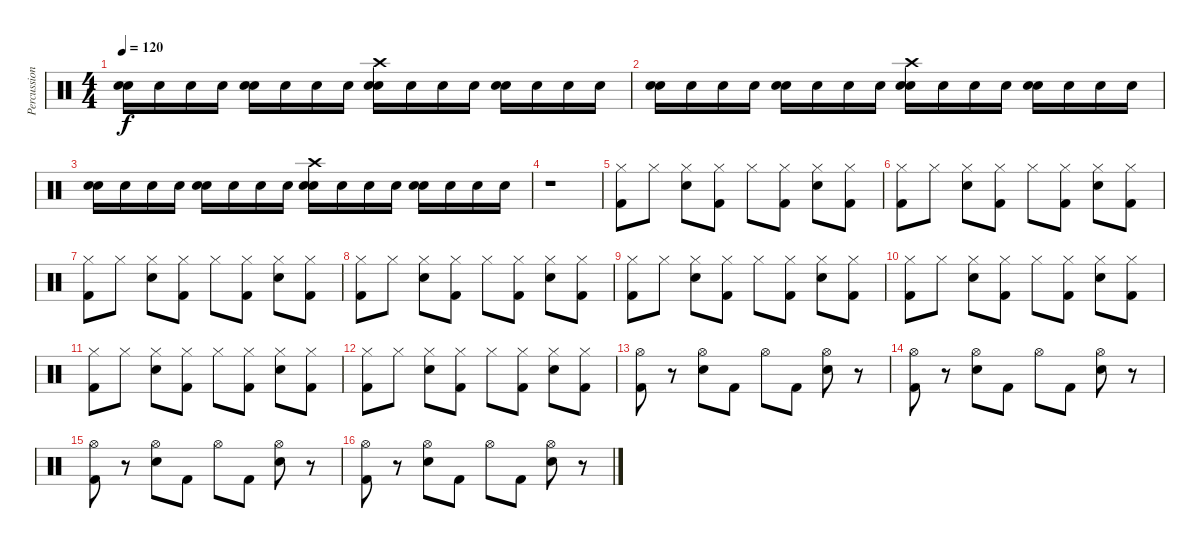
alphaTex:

\track ("Percussion" "Percussion") {instrument percussion}
\staff {score}
\articulation defaults
\ts (4 4)
\tempo 120
\clef neutral
\ks c
("Snare (hit) 2" "Snare (hit) 2").16{dy f} "Snare (hit) 2".16 "Snare (hit) 2".16 "Snare (hit) 2".16 ("Snare (hit) 2" "Snare (hit) 2").16 "Snare (hit) 2".16 "Snare (hit) 2".16 "Snare (hit) 2".16 ("Snare (hit) 2" "Snare (hit) 2" "Crash high (hit)").16 "Snare (hit) 2".16 "Snare (hit) 2".16 "Snare (hit) 2".16 ("Snare (hit) 2" "Snare (hit) 2").16 "Snare (hit) 2".16 "Snare (hit) 2".16 "Snare (hit) 2".16 |
("Snare (hit) 2" "Snare (hit) 2").16 "Snare (hit) 2".16 "Snare (hit) 2".16 "Snare (hit) 2".16 ("Snare (hit) 2" "Snare (hit) 2").16 "Snare (hit) 2".16 "Snare (hit) 2".16 "Snare (hit) 2".16 ("Snare (hit) 2" "Snare (hit) 2" "Crash high (hit)").16 "Snare (hit) 2".16 "Snare (hit) 2".16 "Snare (hit) 2".16 ("Snare (hit) 2" "Snare (hit) 2").16 "Snare (hit) 2".16 "Snare (hit) 2".16 "Snare (hit) 2".16 |
("Snare (hit) 2" "Snare (hit) 2").16 "Snare (hit) 2".16 "Snare (hit) 2".16 "Snare (hit) 2".16 ("Snare (hit) 2" "Snare (hit) 2").16 "Snare (hit) 2".16 "Snare (hit) 2".16 "Snare (hit) 2".16 ("Snare (hit) 2" "Snare (hit) 2" "Crash high (hit)").16 "Snare (hit) 2".16 "Snare (hit) 2".16 "Snare (hit) 2".16 ("Snare (hit) 2" "Snare (hit) 2").16 "Snare (hit) 2".16 "Snare (hit) 2".16 "Snare (hit) 2".16 |
r.1 |
("Hi-Hat (closed)" "Kick (hit) 2").8 "Hi-Hat (closed)".8 ("Hi-Hat (closed)" "Snare (hit) 2").8 ("Hi-Hat (closed)" "Kick (hit) 2").8 "Hi-Hat (closed)".8 ("Hi-Hat (closed)" "Kick (hit) 2").8 ("Hi-Hat (closed)" "Snare (hit) 2").8 ("Hi-Hat (closed)" "Kick (hit) 2").8 |
("Hi-Hat (closed)" "Kick (hit) 2").8 "Hi-Hat (closed)".8 ("Hi-Hat (closed)" "Snare (hit) 2").8 ("Hi-Hat (closed)" "Kick (hit) 2").8 "Hi-Hat (closed)".8 ("Hi-Hat (closed)" "Kick (hit) 2").8 ("Hi-Hat (closed)" "Snare (hit) 2").8 ("Hi-Hat (closed)" "Kick (hit) 2").8 |
("Hi-Hat (closed)" "Kick (hit) 2").8 "Hi-Hat (closed)".8 ("Hi-Hat (closed)" "Snare (hit) 2").8 ("Hi-Hat (closed)" "Kick (hit) 2").8 "Hi-Hat (closed)".8 ("Hi-Hat (closed)" "Kick (hit) 2").8 ("Hi-Hat (closed)" "Snare (hit) 2").8 ("Hi-Hat (closed)" "Kick (hit) 2").8 |
("Hi-Hat (closed)" "Kick (hit) 2").8 "Hi-Hat (closed)".8 ("Hi-Hat (closed)" "Snare (hit) 2").8 ("Hi-Hat (closed)" "Kick (hit) 2").8 "Hi-Hat (closed)".8 ("Hi-Hat (closed)" "Kick (hit) 2").8 ("Hi-Hat (closed)" "Snare (hit) 2").8 ("Hi-Hat (closed)" "Kick (hit) 2").8 |
("Hi-Hat (closed)" "Kick (hit) 2").8 "Hi-Hat (closed)".8 ("Hi-Hat (closed)" "Snare (hit) 2").8 ("Hi-Hat (closed)" "Kick (hit) 2").8 "Hi-Hat (closed)".8 ("Hi-Hat (closed)" "Kick (hit) 2").8 ("Hi-Hat (closed)" "Snare (hit) 2").8 ("Hi-Hat (closed)" "Kick (hit) 2").8 |
("Hi-Hat (closed)" "Kick (hit) 2").8 "Hi-Hat (closed)".8 ("Hi-Hat (closed)" "Snare (hit) 2").8 ("Hi-Hat (closed)" "Kick (hit) 2").8 "Hi-Hat (closed)".8 ("Hi-Hat (closed)" "Kick (hit) 2").8 ("Hi-Hat (closed)" "Snare (hit) 2").8 ("Hi-Hat (closed)" "Kick (hit) 2").8 |
("Hi-Hat (closed)" "Kick (hit) 2").8 "Hi-Hat (closed)".8 ("Hi-Hat (closed)" "Snare (hit) 2").8 ("Hi-Hat (closed)" "Kick (hit) 2").8 "Hi-Hat (closed)".8 ("Hi-Hat (closed)" "Kick (hit) 2").8 ("Hi-Hat (closed)" "Snare (hit) 2").8 ("Hi-Hat (closed)" "Kick (hit) 2").8 |
("Hi-Hat (closed)" "Kick (hit) 2").8 "Hi-Hat (closed)".8 ("Hi-Hat (closed)" "Snare (hit) 2").8 ("Hi-Hat (closed)" "Kick (hit) 2").8 "Hi-Hat (closed)".8 ("Hi-Hat (closed)" "Kick (hit) 2").8 ("Hi-Hat (closed)" "Snare (hit) 2").8 ("Hi-Hat (closed)" "Kick (hit) 2").8 |
("Hi-Hat (open)" "Kick (hit) 2").8 r.8 ("Hi-Hat (open)" "Snare (hit) 2").8 "Kick (hit) 2".8 "Hi-Hat (open)".8 "Kick (hit) 2".8 ("Hi-Hat (open)" "Snare (hit) 2").8 r.8 |
("Hi-Hat (open)" "Kick (hit) 2").8 r.8 ("Hi-Hat (open)" "Snare (hit) 2").8 "Kick (hit) 2".8 "Hi-Hat (open)".8 "Kick (hit) 2".8 ("Hi-Hat (open)" "Snare (hit) 2").8 r.8 |
("Hi-Hat (open)" "Kick (hit) 2").8 r.8 ("Hi-Hat (open)" "Snare (hit) 2").8 "Kick (hit) 2".8 "Hi-Hat (open)".8 "Kick (hit) 2".8 ("Hi-Hat (open)" "Snare (hit) 2").8 r.8 |
("Hi-Hat (open)" "Kick (hit) 2").8 r.8 ("Hi-Hat (open)" "Snare (hit) 2").8 "Kick (hit) 2".8 "Hi-Hat (open)".8 "Kick (hit) 2".8 ("Hi-Hat (open)" "Snare (hit) 2").8 r.8
